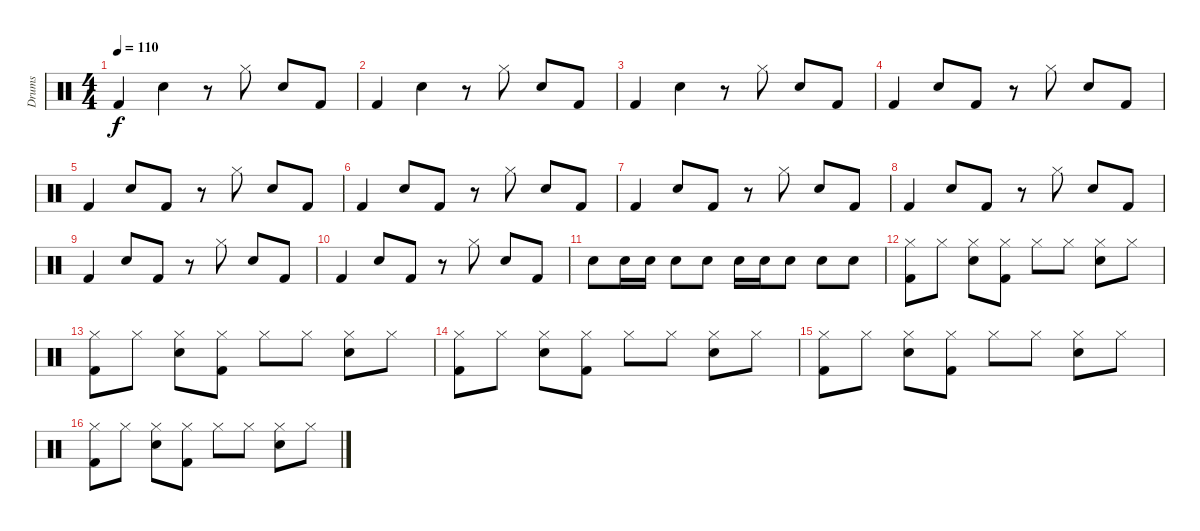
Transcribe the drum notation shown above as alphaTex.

\track ("Drums" "Drums") {instrument percussion}
\staff {score}
\articulation defaults
\ts (4 4)
\tempo 110
\clef neutral
\ks c "Kick (hit) 2".4{dy f} "Snare (hit) 2".4
r.8 "Hi-Hat (closed)".8 "Snare (hit) 2".8 "Kick (hit) 2".8 |
"Kick (hit) 2".4 "Snare (hit) 2".4 r.8 "Hi-Hat (closed)".8 "Snare (hit) 2".8 "Kick (hit) 2".8 |
"Kick (hit) 2".4 "Snare (hit) 2".4 r.8 "Hi-Hat (closed)".8 "Snare (hit) 2".8 "Kick (hit) 2".8 |
"Kick (hit) 2".4 "Snare (hit) 2".8 "Kick (hit) 2".8 r.8 "Hi-Hat (closed)".8 "Snare (hit) 2".8 "Kick (hit) 2".8 |
"Kick (hit) 2".4 "Snare (hit) 2".8 "Kick (hit) 2".8 r.8 "Hi-Hat (closed)".8 "Snare (hit) 2".8 "Kick (hit) 2".8 |
"Kick (hit) 2".4 "Snare (hit) 2".8 "Kick (hit) 2".8 r.8 "Hi-Hat (closed)".8 "Snare (hit) 2".8 "Kick (hit) 2".8 |
"Kick (hit) 2".4 "Snare (hit) 2".8 "Kick (hit) 2".8 r.8 "Hi-Hat (closed)".8 "Snare (hit) 2".8 "Kick (hit) 2".8 |
"Kick (hit) 2".4 "Snare (hit) 2".8 "Kick (hit) 2".8 r.8 "Hi-Hat (closed)".8 "Snare (hit) 2".8 "Kick (hit) 2".8 |
"Kick (hit) 2".4 "Snare (hit) 2".8 "Kick (hit) 2".8 r.8 "Hi-Hat (closed)".8 "Snare (hit) 2".8 "Kick (hit) 2".8 |
"Kick (hit) 2".4 "Snare (hit) 2".8 "Kick (hit) 2".8 r.8 "Hi-Hat (closed)".8 "Snare (hit) 2".8 "Kick (hit) 2".8 |
"Snare (hit) 2".8 "Snare (hit) 2".16 "Snare (hit) 2".16 "Snare (hit) 2".8 "Snare (hit) 2".8 "Snare (hit) 2".16 "Snare (hit) 2".16 "Snare (hit) 2".8 "Snare (hit) 2".8 "Snare (hit) 2".8 |
("Hi-Hat (closed)" "Kick (hit) 2").8 "Hi-Hat (closed)".8 ("Hi-Hat (closed)" "Snare (hit) 2").8 ("Hi-Hat (closed)" "Kick (hit) 2").8 "Hi-Hat (closed)".8 "Hi-Hat (closed)".8 ("Hi-Hat (closed)" "Snare (hit) 2").8 "Hi-Hat (closed)".8 |
("Hi-Hat (closed)" "Kick (hit) 2").8 "Hi-Hat (closed)".8 ("Hi-Hat (closed)" "Snare (hit) 2").8 ("Hi-Hat (closed)" "Kick (hit) 2").8 "Hi-Hat (closed)".8 "Hi-Hat (closed)".8 ("Hi-Hat (closed)" "Snare (hit) 2").8 "Hi-Hat (closed)".8 |
("Hi-Hat (closed)" "Kick (hit) 2").8 "Hi-Hat (closed)".8 ("Hi-Hat (closed)" "Snare (hit) 2").8 ("Hi-Hat (closed)" "Kick (hit) 2").8 "Hi-Hat (closed)".8 "Hi-Hat (closed)".8 ("Hi-Hat (closed)" "Snare (hit) 2").8 "Hi-Hat (closed)".8 |
("Hi-Hat (closed)" "Kick (hit) 2").8 "Hi-Hat (closed)".8 ("Hi-Hat (closed)" "Snare (hit) 2").8 ("Hi-Hat (closed)" "Kick (hit) 2").8 "Hi-Hat (closed)".8 "Hi-Hat (closed)".8 ("Hi-Hat (closed)" "Snare (hit) 2").8 "Hi-Hat (closed)".8 |
("Hi-Hat (closed)" "Kick (hit) 2").8 "Hi-Hat (closed)".8 ("Hi-Hat (closed)" "Snare (hit) 2").8 ("Hi-Hat (closed)" "Kick (hit) 2").8 "Hi-Hat (closed)".8 "Hi-Hat (closed)".8 ("Hi-Hat (closed)" "Snare (hit) 2").8 "Hi-Hat (closed)".8
